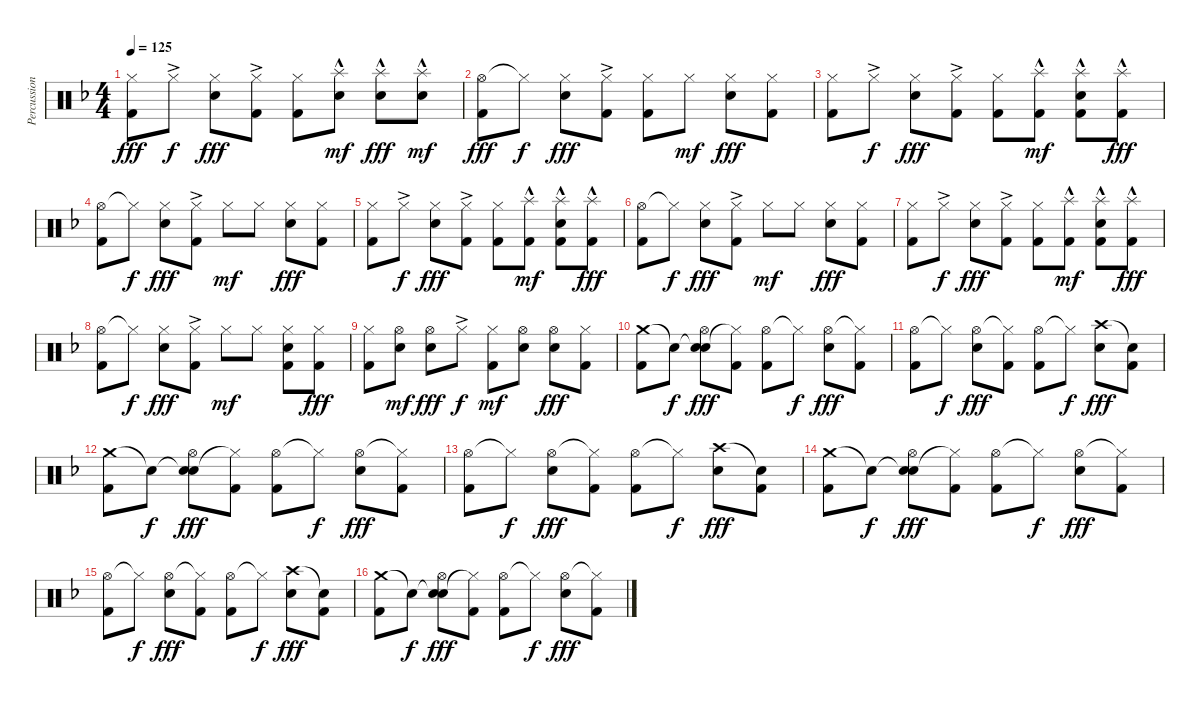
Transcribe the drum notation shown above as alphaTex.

\track ("Percussion" "Percussion") {instrument percussion}
\staff {score}
\articulation defaults
\ts (4 4)
\tempo 125
\clef neutral
\ks dminor
("Hi-Hat (closed)" "Kick (hit) 2").8{dy fff} "Hi-Hat (closed)"{ac}.8{dy f} ("Hi-Hat (closed)" "Electric Snare (hit)").8{dy fff} ("Hi-Hat (closed)"{ac} "Kick (hit) 2").8 ("Hi-Hat (closed)" "Kick (hit) 2").8 ("Splash (hit)"{hac} "Electric Snare (hit)").8{dy mf} ("Splash (hit)"{hac} "Electric Snare (hit)").8{dy fff} ("Splash (hit)"{hac} "Electric Snare (hit)").8{dy mf} |
("Hi-Hat (open)" "Kick (hit) 2").8{dy fff} "Hi-Hat (closed)"{t}.8{dy f} ("Hi-Hat (closed)" "Electric Snare (hit)").8{dy fff} ("Hi-Hat (closed)"{ac} "Kick (hit) 2").8 ("Hi-Hat (closed)" "Kick (hit) 2").8 "Hi-Hat (closed)".8{dy mf} ("Hi-Hat (closed)" "Electric Snare (hit)").8{dy fff} ("Hi-Hat (closed)" "Kick (hit) 2").8 |
("Hi-Hat (closed)" "Kick (hit) 2").8 "Hi-Hat (closed)"{ac}.8{dy f} ("Hi-Hat (closed)" "Electric Snare (hit)").8{dy fff} ("Hi-Hat (closed)"{ac} "Kick (hit) 2").8 ("Hi-Hat (closed)" "Kick (hit) 2").8 ("Splash (hit)"{hac} "Kick (hit) 2").8{dy mf} ("Splash (hit)"{hac} "Electric Snare (hit)" "Kick (hit) 2").8 ("Splash (hit)"{hac} "Kick (hit) 2").8{dy fff} |
("Hi-Hat (open)" "Kick (hit) 2").8 "Hi-Hat (closed)"{t}.8{dy f} ("Hi-Hat (closed)" "Electric Snare (hit)").8{dy fff} ("Hi-Hat (closed)"{ac} "Kick (hit) 2").8 "Hi-Hat (closed)".8{dy mf} "Hi-Hat (closed)".8 ("Hi-Hat (closed)" "Electric Snare (hit)").8{dy fff} ("Hi-Hat (closed)" "Kick (hit) 2").8 |
("Hi-Hat (closed)" "Kick (hit) 2").8 "Hi-Hat (closed)"{ac}.8{dy f} ("Hi-Hat (closed)" "Electric Snare (hit)").8{dy fff} ("Hi-Hat (closed)"{ac} "Kick (hit) 2").8 ("Hi-Hat (closed)" "Kick (hit) 2").8 ("Splash (hit)"{hac} "Kick (hit) 2").8{dy mf} ("Splash (hit)"{hac} "Electric Snare (hit)" "Kick (hit) 2").8 ("Splash (hit)"{hac} "Kick (hit) 2").8{dy fff} |
("Hi-Hat (open)" "Kick (hit) 2").8 "Hi-Hat (closed)"{t}.8{dy f} ("Hi-Hat (closed)" "Electric Snare (hit)").8{dy fff} ("Hi-Hat (closed)"{ac} "Kick (hit) 2").8 "Hi-Hat (closed)".8{dy mf} "Hi-Hat (closed)".8 ("Hi-Hat (closed)" "Electric Snare (hit)").8{dy fff} ("Hi-Hat (closed)" "Kick (hit) 2").8 |
("Hi-Hat (closed)" "Kick (hit) 2").8 "Hi-Hat (closed)"{ac}.8{dy f} ("Hi-Hat (closed)" "Electric Snare (hit)").8{dy fff} ("Hi-Hat (closed)"{ac} "Kick (hit) 2").8 ("Hi-Hat (closed)" "Kick (hit) 2").8 ("Splash (hit)"{hac} "Kick (hit) 2").8{dy mf} ("Splash (hit)"{hac} "Electric Snare (hit)" "Kick (hit) 2").8 ("Splash (hit)"{hac} "Kick (hit) 2").8{dy fff} |
("Hi-Hat (open)" "Kick (hit) 2").8 "Hi-Hat (closed)"{t}.8{dy f} ("Hi-Hat (closed)" "Electric Snare (hit)").8{dy fff} ("Hi-Hat (closed)"{ac} "Kick (hit) 2").8 "Hi-Hat (closed)".8{dy mf} "Hi-Hat (closed)".8 ("Hi-Hat (closed)" "Electric Snare (hit)" "Kick (hit) 2").8 ("Hi-Hat (closed)" "Kick (hit) 2").8{dy fff} |
("Hi-Hat (closed)" "Kick (hit) 2").8 ("Hi-Hat (open)" "Electric Snare (hit)").8{dy mf} ("Hi-Hat (open)" "Electric Snare (hit)").8{dy fff} "Hi-Hat (closed)"{ac}.8{dy f} ("Hi-Hat (closed)" "Kick (hit) 2").8{dy mf} ("Hi-Hat (open)" "Electric Snare (hit)").8 ("Hi-Hat (open)" "Electric Snare (hit)").8{dy fff} ("Hi-Hat (closed)" "Kick (hit) 2").8 |
("Crash medium (hit)" "Kick (hit) 2").8 "Snare (hit)"{t}.8{dy f} ("Snare (hit)"{t} "Hi-Hat (open)" "Electric Snare (hit)").8{dy fff} ("Hi-Hat (closed)"{t} "Kick (hit) 2").8 ("Hi-Hat (open)" "Kick (hit) 2").8 "Hi-Hat (closed)"{t}.8{dy f} ("Hi-Hat (open)" "Electric Snare (hit)").8{dy fff} ("Hi-Hat (closed)"{t} "Kick (hit) 2").8 |
("Hi-Hat (open)" "Kick (hit) 2").8 "Hi-Hat (closed)"{t}.8{dy f} ("Hi-Hat (open)" "Electric Snare (hit)").8{dy fff} ("Hi-Hat (closed)"{t} "Kick (hit) 2").8 ("Hi-Hat (open)" "Kick (hit) 2").8 "Hi-Hat (closed)"{t}.8{dy f} ("Crash high (hit)" "Electric Snare (hit)").8{dy fff} ("Snare (hit)"{t} "Kick (hit) 2").8 |
("Crash medium (hit)" "Kick (hit) 2").8 "Snare (hit)"{t}.8{dy f} ("Snare (hit)"{t} "Hi-Hat (open)" "Electric Snare (hit)").8{dy fff} ("Hi-Hat (closed)"{t} "Kick (hit) 2").8 ("Hi-Hat (open)" "Kick (hit) 2").8 "Hi-Hat (closed)"{t}.8{dy f} ("Hi-Hat (open)" "Electric Snare (hit)").8{dy fff} ("Hi-Hat (closed)"{t} "Kick (hit) 2").8 |
("Hi-Hat (open)" "Kick (hit) 2").8 "Hi-Hat (closed)"{t}.8{dy f} ("Hi-Hat (open)" "Electric Snare (hit)").8{dy fff} ("Hi-Hat (closed)"{t} "Kick (hit) 2").8 ("Hi-Hat (open)" "Kick (hit) 2").8 "Hi-Hat (closed)"{t}.8{dy f} ("Crash high (hit)" "Electric Snare (hit)").8{dy fff} ("Snare (hit)"{t} "Kick (hit) 2").8 |
("Crash medium (hit)" "Kick (hit) 2").8 "Snare (hit)"{t}.8{dy f} ("Snare (hit)"{t} "Hi-Hat (open)" "Electric Snare (hit)").8{dy fff} ("Hi-Hat (closed)"{t} "Kick (hit) 2").8 ("Hi-Hat (open)" "Kick (hit) 2").8 "Hi-Hat (closed)"{t}.8{dy f} ("Hi-Hat (open)" "Electric Snare (hit)").8{dy fff} ("Hi-Hat (closed)"{t} "Kick (hit) 2").8 |
("Hi-Hat (open)" "Kick (hit) 2").8 "Hi-Hat (closed)"{t}.8{dy f} ("Hi-Hat (open)" "Electric Snare (hit)").8{dy fff} ("Hi-Hat (closed)"{t} "Kick (hit) 2").8 ("Hi-Hat (open)" "Kick (hit) 2").8 "Hi-Hat (closed)"{t}.8{dy f} ("Crash high (hit)" "Electric Snare (hit)").8{dy fff} ("Snare (hit)"{t} "Kick (hit) 2").8 |
("Crash medium (hit)" "Kick (hit) 2").8 "Snare (hit)"{t}.8{dy f} ("Snare (hit)"{t} "Hi-Hat (open)" "Electric Snare (hit)").8{dy fff} ("Hi-Hat (closed)"{t} "Kick (hit) 2").8 ("Hi-Hat (open)" "Kick (hit) 2").8 "Hi-Hat (closed)"{t}.8{dy f} ("Hi-Hat (open)" "Electric Snare (hit)").8{dy fff} ("Hi-Hat (closed)"{t} "Kick (hit) 2").8
